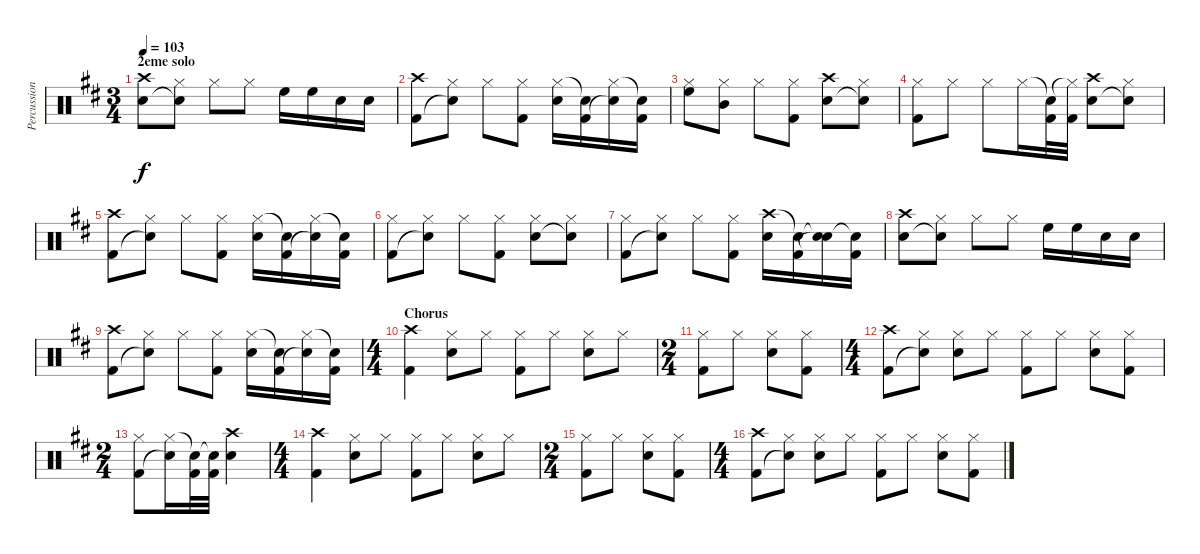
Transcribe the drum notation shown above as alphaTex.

\track ("Percussions" "Percussion") {instrument percussion}
\staff {score}
\articulation defaults
\ts (3 4)
\section ("" "2eme solo")
\tempo 103
\clef neutral
\ks bminor
("Crash high (hit)" "Snare (hit) 2").8{dy f} ("Hi-Hat (closed)" "Snare (hit)"{t}).8 "Hi-Hat (closed)".8 "Hi-Hat (closed)".8 "High Floor Tom (hit)".16 "High Floor Tom (hit)".16 "Snare (hit) 2".16 "Snare (hit) 2".16 |
("Crash high (hit)" "Kick (hit) 2").8 ("Hi-Hat (closed)" "Snare (hit)"{t}).8 "Hi-Hat (closed)".8 ("Hi-Hat (closed)" "Kick (hit) 2").8 ("Hi-Hat (closed)" "Snare (hit) 2").16 ("Snare (hit)"{t} "Kick (hit) 2").16 ("Hi-Hat (closed)" "Snare (hit)"{t}).16 ("Snare (hit)"{t} "Kick (hit) 2").16 |
("Hi-Hat (closed)" "High Floor Tom (hit)").8 ("Hi-Hat (closed)" "Mid Tom (hit)").8 "Hi-Hat (closed)".8 ("Hi-Hat (closed)" "Kick (hit) 2").8 ("Crash high (hit)" "Snare (hit) 2").8 ("Hi-Hat (closed)" "Snare (hit)"{t}).8 |
("Hi-Hat (closed)" "Kick (hit) 2").8 "Hi-Hat (closed)".8 "Hi-Hat (closed)".8 "Hi-Hat (closed)".16 ("Snare (hit)"{t} "Kick (hit) 2").32 ("Hi-Hat (closed)"{t} "Kick (hit) 2").32 ("Crash high (hit)" "Snare (hit) 2").8 ("Hi-Hat (closed)" "Snare (hit)"{t}).8 |
("Crash high (hit)" "Kick (hit) 2").8 ("Hi-Hat (closed)" "Snare (hit)"{t}).8 "Hi-Hat (closed)".8 ("Hi-Hat (closed)" "Kick (hit) 2").8 ("Hi-Hat (closed)" "Snare (hit) 2").16 ("Snare (hit)"{t} "Kick (hit) 2").16 ("Hi-Hat (closed)" "Snare (hit)"{t}).16 ("Snare (hit)"{t} "Kick (hit) 2").16 |
("Hi-Hat (closed)" "Kick (hit) 2").8 ("Hi-Hat (closed)" "Snare (hit)"{t}).8 "Hi-Hat (closed)".8 ("Hi-Hat (closed)" "Kick (hit) 2").8 ("Hi-Hat (closed)" "Snare (hit) 2").8 ("Hi-Hat (closed)" "Snare (hit)"{t}).8 |
("Hi-Hat (closed)" "Kick (hit) 2").8 ("Hi-Hat (closed)" "Snare (hit)"{t}).8 "Hi-Hat (closed)".8 ("Hi-Hat (closed)" "Kick (hit) 2").8 ("Crash high (hit)" "Snare (hit) 2").16 ("Snare (hit)"{t} "Kick (hit) 2").16 ("Snare (hit)"{t} "Snare (hit)"{t}).16 ("Snare (hit)"{t} "Kick (hit) 2").16 |
("Crash high (hit)" "Snare (hit) 2").8 ("Hi-Hat (closed)" "Snare (hit)"{t}).8 "Hi-Hat (closed)".8 "Hi-Hat (closed)".8 "High Floor Tom (hit)".16 "High Floor Tom (hit)".16 "Snare (hit) 2".16 "Snare (hit) 2".16 |
("Crash high (hit)" "Kick (hit) 2").8 ("Hi-Hat (closed)" "Snare (hit)"{t}).8 "Hi-Hat (closed)".8 ("Hi-Hat (closed)" "Kick (hit) 2").8 ("Hi-Hat (closed)" "Snare (hit) 2").16 ("Snare (hit)"{t} "Kick (hit) 2").16 ("Hi-Hat (closed)" "Snare (hit)"{t}).16 ("Snare (hit)"{t} "Kick (hit) 2").16 |
\ts (4 4)
\section ("" "Chorus")
("Crash high (hit)" "Kick (hit) 2").4 ("Hi-Hat (closed)" "Snare (hit) 2").8 "Hi-Hat (closed)".8 ("Hi-Hat (closed)" "Kick (hit) 2").8 "Hi-Hat (closed)".8 ("Hi-Hat (closed)" "Snare (hit) 2").8 "Hi-Hat (closed)".8 |
\ts (2 4)
("Hi-Hat (closed)" "Kick (hit) 2").8 "Hi-Hat (closed)".8 ("Hi-Hat (closed)" "Snare (hit) 2").8 ("Hi-Hat (closed)" "Kick (hit) 2").8 |
\ts (4 4)
("Crash high (hit)" "Kick (hit) 2").8 ("Hi-Hat (closed)" "Snare (hit)"{t}).8 ("Hi-Hat (closed)" "Snare (hit) 2").8 "Hi-Hat (closed)".8 ("Hi-Hat (closed)" "Kick (hit) 2").8 "Hi-Hat (closed)".8 ("Hi-Hat (closed)" "Snare (hit) 2").8 ("Hi-Hat (closed)" "Kick (hit) 2").8 |
\ts (2 4)
("Hi-Hat (closed)" "Kick (hit) 2").8 ("Hi-Hat (closed)" "Snare (hit)"{t}).16 ("Snare (hit)"{t} "Kick (hit) 2").32 ("Snare (hit)"{t} "Kick (hit) 2").32 ("Crash high (hit)" "Snare (hit) 2").4 |
\ts (4 4)
("Crash high (hit)" "Kick (hit) 2").4 ("Hi-Hat (closed)" "Snare (hit) 2").8 "Hi-Hat (closed)".8 ("Hi-Hat (closed)" "Kick (hit) 2").8 "Hi-Hat (closed)".8 ("Hi-Hat (closed)" "Snare (hit) 2").8 "Hi-Hat (closed)".8 |
\ts (2 4)
("Hi-Hat (closed)" "Kick (hit) 2").8 "Hi-Hat (closed)".8 ("Hi-Hat (closed)" "Snare (hit) 2").8 ("Hi-Hat (closed)" "Kick (hit) 2").8 |
\ts (4 4)
("Crash high (hit)" "Kick (hit) 2").8 ("Hi-Hat (closed)" "Snare (hit)"{t}).8 ("Hi-Hat (closed)" "Snare (hit) 2").8 "Hi-Hat (closed)".8 ("Hi-Hat (closed)" "Kick (hit) 2").8 "Hi-Hat (closed)".8 ("Hi-Hat (closed)" "Snare (hit) 2").8 ("Hi-Hat (closed)" "Kick (hit) 2").8
